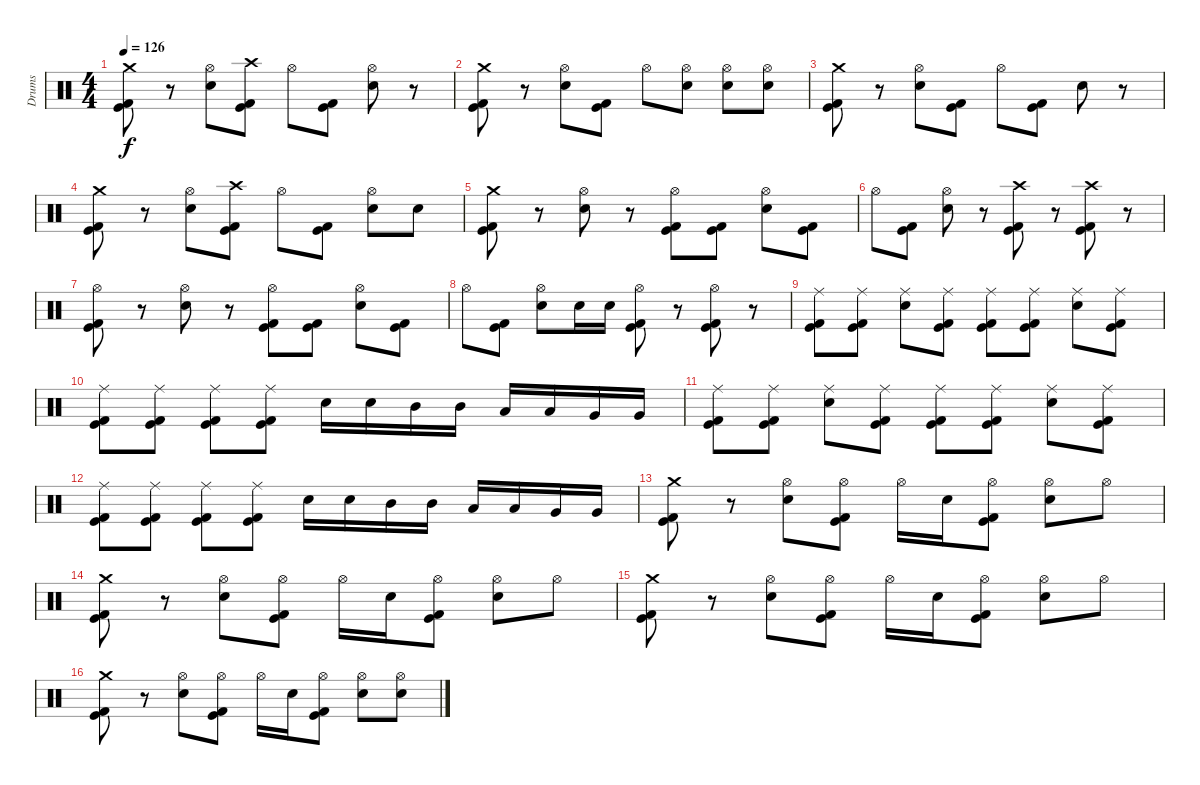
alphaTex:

\track ("Drums" "Drums") {instrument percussion}
\staff {score}
\articulation defaults
\ts (4 4)
\tempo 126
\clef neutral
\ks c
("Crash medium (hit)" "Kick (hit) 2" "Kick (hit)").8{dy f} r.8 ("Hi-Hat (open)" "Snare (hit) 2").8 ("Crash high (hit)" "Kick (hit) 2" "Kick (hit)").8 "Hi-Hat (open)".8 ("Kick (hit) 2" "Kick (hit)").8 ("Hi-Hat (open)" "Snare (hit) 2").8 r.8 |
("Crash medium (hit)" "Kick (hit) 2" "Kick (hit)").8 r.8 ("Hi-Hat (open)" "Snare (hit) 2").8 ("Kick (hit) 2" "Kick (hit)").8 "Hi-Hat (open)".8 ("Hi-Hat (open)" "Snare (hit) 2").8 ("Hi-Hat (open)" "Snare (hit) 2").8 ("Hi-Hat (open)" "Snare (hit) 2").8 |
("Crash medium (hit)" "Kick (hit) 2" "Kick (hit)").8 r.8 ("Hi-Hat (open)" "Snare (hit) 2").8 ("Kick (hit) 2" "Kick (hit)").8 "Hi-Hat (open)".8 ("Kick (hit) 2" "Kick (hit)").8 "Snare (hit) 2".8 r.8 |
("Crash medium (hit)" "Kick (hit) 2" "Kick (hit)").8 r.8 ("Hi-Hat (open)" "Snare (hit) 2").8 ("Crash high (hit)" "Kick (hit) 2" "Kick (hit)").8 "Hi-Hat (open)".8 ("Kick (hit) 2" "Kick (hit)").8 ("Hi-Hat (open)" "Snare (hit) 2").8 "Snare (hit) 2".8 |
("Crash medium (hit)" "Kick (hit) 2" "Kick (hit)").8 r.8 ("Hi-Hat (open)" "Snare (hit) 2").8 r.8 ("Hi-Hat (open)" "Kick (hit) 2" "Kick (hit)").8 ("Kick (hit) 2" "Kick (hit)").8 ("Hi-Hat (open)" "Snare (hit) 2").8 ("Kick (hit) 2" "Kick (hit)").8 |
"Hi-Hat (open)".8 ("Kick (hit) 2" "Kick (hit)").8 ("Hi-Hat (open)" "Snare (hit) 2").8 r.8 ("Crash high (hit)" "Kick (hit) 2" "Kick (hit)").8 r.8 ("Crash high (hit)" "Kick (hit) 2" "Kick (hit)").8 r.8 |
("Hi-Hat (open)" "Kick (hit) 2" "Kick (hit)").8 r.8 ("Hi-Hat (open)" "Snare (hit) 2").8 r.8 ("Hi-Hat (open)" "Kick (hit) 2" "Kick (hit)").8 ("Kick (hit) 2" "Kick (hit)").8 ("Hi-Hat (open)" "Snare (hit) 2").8 ("Kick (hit) 2" "Kick (hit)").8 |
"Hi-Hat (open)".8 ("Kick (hit) 2" "Kick (hit)").8 ("Hi-Hat (open)" "Snare (hit) 2").8 "Snare (hit) 2".16 "Snare (hit) 2".16 ("Hi-Hat (open)" "Kick (hit) 2" "Kick (hit)").8 r.8 ("Hi-Hat (open)" "Kick (hit) 2" "Kick (hit)").8 r.8 |
("Ride (middle)" "Kick (hit) 2" "Kick (hit)").8 ("Ride (middle)" "Kick (hit) 2" "Kick (hit)").8 ("Ride (middle)" "Snare (hit) 2").8 ("Ride (middle)" "Kick (hit) 2" "Kick (hit)").8 ("Ride (middle)" "Kick (hit) 2" "Kick (hit)").8 ("Ride (middle)" "Kick (hit) 2" "Kick (hit)").8 ("Ride (middle)" "Snare (hit) 2").8 ("Ride (middle)" "Kick (hit) 2" "Kick (hit)").8 |
("Ride (middle)" "Kick (hit) 2" "Kick (hit)").8 ("Ride (middle)" "Kick (hit) 2" "Kick (hit)").8 ("Ride (middle)" "Kick (hit) 2" "Kick (hit)").8 ("Ride (middle)" "Kick (hit) 2" "Kick (hit)").8 "Snare (hit) 2".16 "Snare (hit) 2".16 "Mid Tom (hit)".16 "Mid Tom (hit)".16 "Low Tom (hit)".16 "Low Tom (hit)".16 "Very Low Tom (hit)".16 "Very Low Tom (hit)".16 |
("Ride (middle)" "Kick (hit) 2" "Kick (hit)").8 ("Ride (middle)" "Kick (hit) 2" "Kick (hit)").8 ("Ride (middle)" "Snare (hit) 2").8 ("Ride (middle)" "Kick (hit) 2" "Kick (hit)").8 ("Ride (middle)" "Kick (hit) 2" "Kick (hit)").8 ("Ride (middle)" "Kick (hit) 2" "Kick (hit)").8 ("Ride (middle)" "Snare (hit) 2").8 ("Ride (middle)" "Kick (hit) 2" "Kick (hit)").8 |
("Ride (middle)" "Kick (hit) 2" "Kick (hit)").8 ("Ride (middle)" "Kick (hit) 2" "Kick (hit)").8 ("Ride (middle)" "Kick (hit) 2" "Kick (hit)").8 ("Ride (middle)" "Kick (hit) 2" "Kick (hit)").8 "Snare (hit) 2".16 "Snare (hit) 2".16 "Mid Tom (hit)".16 "Mid Tom (hit)".16 "Low Tom (hit)".16 "Low Tom (hit)".16 "Very Low Tom (hit)".16 "Very Low Tom (hit)".16 |
("Crash medium (hit)" "Kick (hit) 2" "Kick (hit)").8 r.8 ("Hi-Hat (open)" "Snare (hit) 2").8 ("Hi-Hat (open)" "Kick (hit) 2" "Kick (hit)").8 "Hi-Hat (open)".16 "Snare (hit) 2".16 ("Hi-Hat (open)" "Kick (hit) 2" "Kick (hit)").8 ("Hi-Hat (open)" "Snare (hit) 2").8 "Hi-Hat (open)".8 |
("Crash medium (hit)" "Kick (hit) 2" "Kick (hit)").8 r.8 ("Hi-Hat (open)" "Snare (hit) 2").8 ("Hi-Hat (open)" "Kick (hit) 2" "Kick (hit)").8 "Hi-Hat (open)".16 "Snare (hit) 2".16 ("Hi-Hat (open)" "Kick (hit) 2" "Kick (hit)").8 ("Hi-Hat (open)" "Snare (hit) 2").8 "Hi-Hat (open)".8 |
("Crash medium (hit)" "Kick (hit) 2" "Kick (hit)").8 r.8 ("Hi-Hat (open)" "Snare (hit) 2").8 ("Hi-Hat (open)" "Kick (hit) 2" "Kick (hit)").8 "Hi-Hat (open)".16 "Snare (hit) 2".16 ("Hi-Hat (open)" "Kick (hit) 2" "Kick (hit)").8 ("Hi-Hat (open)" "Snare (hit) 2").8 "Hi-Hat (open)".8 |
("Crash medium (hit)" "Kick (hit) 2" "Kick (hit)").8 r.8 ("Hi-Hat (open)" "Snare (hit) 2").8 ("Hi-Hat (open)" "Kick (hit) 2" "Kick (hit)").8 "Hi-Hat (open)".16 "Snare (hit) 2".16 ("Hi-Hat (open)" "Kick (hit) 2" "Kick (hit)").8 ("Hi-Hat (open)" "Snare (hit) 2").8 ("Hi-Hat (open)" "Snare (hit) 2").8
